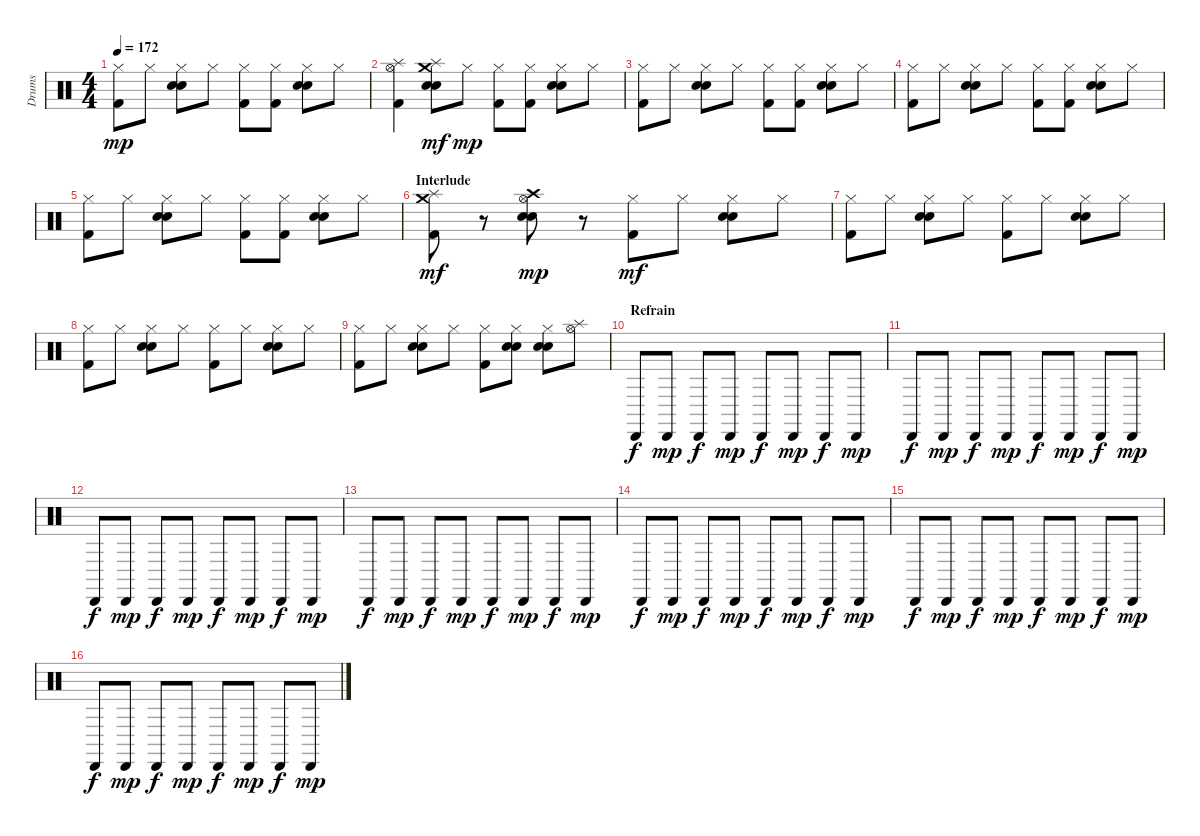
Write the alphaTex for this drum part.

\track ("Drums" "Drums") {instrument percussion}
\staff {score}
\articulation defaults
\ts (4 4)
\tempo 172
\clef neutral
\ks c
("Hi-Hat (closed)" "Kick (hit) 2").8{dy mp} "Hi-Hat (closed)".8 ("Hi-Hat (closed)" "Snare (hit) 2" "Electric Snare (hit)").8 "Hi-Hat (closed)".8 ("Hi-Hat (closed)" "Kick (hit) 2").8 ("Hi-Hat (closed)" "Kick (hit) 2").8 ("Hi-Hat (closed)" "Snare (hit) 2" "Electric Snare (hit)").8 "Hi-Hat (closed)".8 |
("Hi-Hat (open)" "Splash (hit)" "Kick (hit) 2").4 ("Splash (hit)" "Crash medium (hit)" "Snare (hit) 2" "Electric Snare (hit)").8{dy mf} "Hi-Hat (closed)".8{dy mp} ("Hi-Hat (closed)" "Kick (hit) 2").8 ("Hi-Hat (closed)" "Kick (hit) 2").8 ("Hi-Hat (closed)" "Snare (hit) 2" "Electric Snare (hit)").8 "Hi-Hat (closed)".8 |
("Hi-Hat (closed)" "Kick (hit) 2").8 "Hi-Hat (closed)".8 ("Hi-Hat (closed)" "Snare (hit) 2" "Electric Snare (hit)").8 "Hi-Hat (closed)".8 ("Hi-Hat (closed)" "Kick (hit) 2").8 ("Hi-Hat (closed)" "Kick (hit) 2").8 ("Hi-Hat (closed)" "Snare (hit) 2" "Electric Snare (hit)").8 "Hi-Hat (closed)".8 |
("Hi-Hat (closed)" "Kick (hit) 2").8 "Hi-Hat (closed)".8 ("Hi-Hat (closed)" "Snare (hit) 2" "Electric Snare (hit)").8 "Hi-Hat (closed)".8 ("Hi-Hat (closed)" "Kick (hit) 2").8 ("Hi-Hat (closed)" "Kick (hit) 2").8 ("Hi-Hat (closed)" "Snare (hit) 2" "Electric Snare (hit)").8 "Hi-Hat (closed)".8 |
("Hi-Hat (closed)" "Kick (hit) 2").8 "Hi-Hat (closed)".8 ("Hi-Hat (closed)" "Snare (hit) 2" "Electric Snare (hit)").8 "Hi-Hat (closed)".8 ("Hi-Hat (closed)" "Kick (hit) 2").8 ("Hi-Hat (closed)" "Kick (hit) 2").8 ("Hi-Hat (closed)" "Snare (hit) 2" "Electric Snare (hit)").8 "Hi-Hat (closed)".8 |
\section ("" "Interlude")
("Crash medium (hit)" "Splash (hit)" "Kick (hit) 2").8{dy mf} r.8 ("Crash high (hit)" "Hi-Hat (open)" "Electric Snare (hit)" "Snare (hit) 2").8{dy mp} r.8 ("Hi-Hat (closed)" "Kick (hit) 2").8{dy mf} "Hi-Hat (closed)".8 ("Hi-Hat (closed)" "Electric Snare (hit)" "Snare (hit) 2").8 "Hi-Hat (closed)".8 |
("Hi-Hat (closed)" "Kick (hit) 2").8 "Hi-Hat (closed)".8 ("Hi-Hat (closed)" "Electric Snare (hit)" "Snare (hit) 2").8 "Hi-Hat (closed)".8 ("Hi-Hat (closed)" "Kick (hit) 2").8 "Hi-Hat (closed)".8 ("Hi-Hat (closed)" "Electric Snare (hit)" "Snare (hit) 2").8 "Hi-Hat (closed)".8 |
("Hi-Hat (closed)" "Kick (hit) 2").8 "Hi-Hat (closed)".8 ("Hi-Hat (closed)" "Electric Snare (hit)" "Snare (hit) 2").8 "Hi-Hat (closed)".8 ("Hi-Hat (closed)" "Kick (hit) 2").8 "Hi-Hat (closed)".8 ("Hi-Hat (closed)" "Electric Snare (hit)" "Snare (hit) 2").8 "Hi-Hat (closed)".8 |
("Hi-Hat (closed)" "Kick (hit) 2").8 "Hi-Hat (closed)".8 ("Hi-Hat (closed)" "Electric Snare (hit)" "Snare (hit) 2").8 "Hi-Hat (closed)".8 ("Hi-Hat (closed)" "Kick (hit) 2").8 ("Hi-Hat (closed)" "Electric Snare (hit)" "Snare (hit) 2").8 ("Hi-Hat (closed)" "Electric Snare (hit)" "Snare (hit) 2").8 ("Hi-Hat (open)" "Splash (hit)").8 |
\section ("" "Refrain")
"Cabasa (hit)".8{dy f volume 6} "Cabasa (hit)".8{dy mp} "Cabasa (hit)".8{dy f} "Cabasa (hit)".8{dy mp} "Cabasa (hit)".8{dy f} "Cabasa (hit)".8{dy mp} "Cabasa (hit)".8{dy f} "Cabasa (hit)".8{dy mp} |
"Cabasa (hit)".8{dy f} "Cabasa (hit)".8{dy mp} "Cabasa (hit)".8{dy f} "Cabasa (hit)".8{dy mp} "Cabasa (hit)".8{dy f} "Cabasa (hit)".8{dy mp} "Cabasa (hit)".8{dy f} "Cabasa (hit)".8{dy mp} |
"Cabasa (hit)".8{dy f} "Cabasa (hit)".8{dy mp} "Cabasa (hit)".8{dy f} "Cabasa (hit)".8{dy mp} "Cabasa (hit)".8{dy f} "Cabasa (hit)".8{dy mp} "Cabasa (hit)".8{dy f} "Cabasa (hit)".8{dy mp} |
"Cabasa (hit)".8{dy f} "Cabasa (hit)".8{dy mp} "Cabasa (hit)".8{dy f} "Cabasa (hit)".8{dy mp} "Cabasa (hit)".8{dy f} "Cabasa (hit)".8{dy mp} "Cabasa (hit)".8{dy f} "Cabasa (hit)".8{dy mp} |
"Cabasa (hit)".8{dy f} "Cabasa (hit)".8{dy mp} "Cabasa (hit)".8{dy f} "Cabasa (hit)".8{dy mp} "Cabasa (hit)".8{dy f} "Cabasa (hit)".8{dy mp} "Cabasa (hit)".8{dy f} "Cabasa (hit)".8{dy mp} |
"Cabasa (hit)".8{dy f} "Cabasa (hit)".8{dy mp} "Cabasa (hit)".8{dy f} "Cabasa (hit)".8{dy mp} "Cabasa (hit)".8{dy f} "Cabasa (hit)".8{dy mp} "Cabasa (hit)".8{dy f} "Cabasa (hit)".8{dy mp} |
"Cabasa (hit)".8{dy f} "Cabasa (hit)".8{dy mp} "Cabasa (hit)".8{dy f} "Cabasa (hit)".8{dy mp} "Cabasa (hit)".8{dy f} "Cabasa (hit)".8{dy mp} "Cabasa (hit)".8{dy f} "Cabasa (hit)".8{dy mp}
